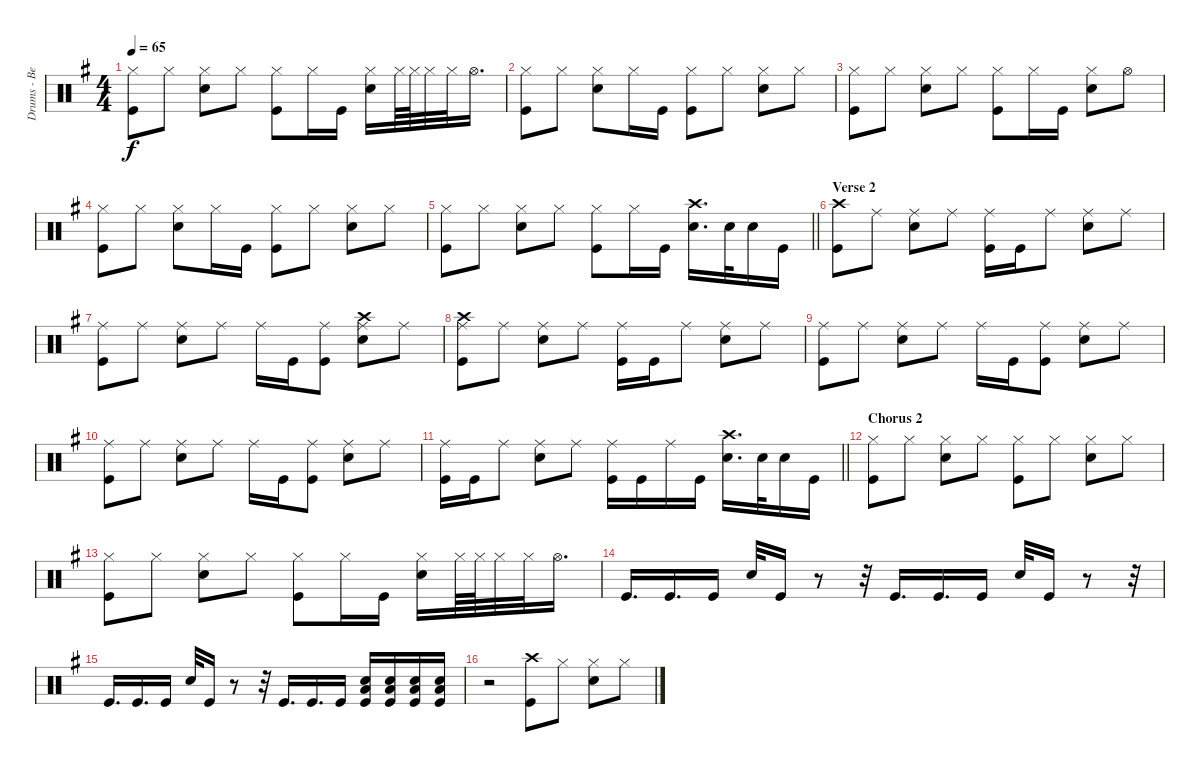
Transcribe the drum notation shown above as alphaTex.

\track ("Drums - Ben Johnston" "Drums - Be") {instrument percussion}
\staff {score}
\articulation defaults
\ts (4 4)
\tempo 65
\clef neutral
\ks g
("Hi-Hat (closed)" "Kick (hit)").8{dy f} "Hi-Hat (closed)".8 ("Hi-Hat (closed)" "Snare (hit) 2").8 "Hi-Hat (closed)".8 ("Hi-Hat (closed)" "Kick (hit)").8 "Hi-Hat (closed)".16 "Kick (hit)".16 ("Hi-Hat (closed)" "Snare (hit) 2").16 "Hi-Hat (closed)".64 "Hi-Hat (closed)".64 "Hi-Hat (closed)".32 "Hi-Hat (closed)".32 "Hi-Hat (open)".16{d} |
("Hi-Hat (closed)" "Kick (hit)").8 "Hi-Hat (closed)".8 ("Hi-Hat (closed)" "Snare (hit) 2").8 "Hi-Hat (closed)".16 "Kick (hit)".16 ("Hi-Hat (closed)" "Kick (hit)").8 "Hi-Hat (closed)".8 ("Hi-Hat (closed)" "Snare (hit) 2").8 "Hi-Hat (closed)".8 |
("Hi-Hat (closed)" "Kick (hit)").8 "Hi-Hat (closed)".8 ("Hi-Hat (closed)" "Snare (hit) 2").8 "Hi-Hat (closed)".8 ("Hi-Hat (closed)" "Kick (hit)").8 "Hi-Hat (closed)".16 "Kick (hit)".16 ("Hi-Hat (closed)" "Snare (hit) 2").8 "Hi-Hat (open)".8 |
("Hi-Hat (closed)" "Kick (hit)").8 "Hi-Hat (closed)".8 ("Hi-Hat (closed)" "Snare (hit) 2").8 "Hi-Hat (closed)".16 "Kick (hit)".16 ("Hi-Hat (closed)" "Kick (hit)").8 "Hi-Hat (closed)".8 ("Hi-Hat (closed)" "Snare (hit) 2").8 "Hi-Hat (closed)".8 |
\barLineRight lightlight
("Hi-Hat (closed)" "Kick (hit)").8 "Hi-Hat (closed)".8 ("Hi-Hat (closed)" "Snare (hit) 2").8 "Hi-Hat (closed)".8 ("Hi-Hat (closed)" "Kick (hit)").8 "Hi-Hat (closed)".16 "Kick (hit)".16 ("Crash high (hit)" "Snare (hit) 2").16{d} "Snare (hit) 2".32 "Snare (hit) 2".16 "Kick (hit)".16 |
\section ("" "Verse 2")
("Crash high (hit)" "Kick (hit)").8 "Ride (middle)".8 ("Ride (middle)" "Snare (hit) 2").8 "Ride (middle)".8 ("Ride (middle)" "Kick (hit)").16 "Kick (hit)".16 "Ride (middle)".8 ("Ride (middle)" "Snare (hit) 2").8 "Ride (middle)".8 |
("Ride (middle)" "Kick (hit)").8 "Ride (middle)".8 ("Ride (middle)" "Snare (hit) 2").8 "Ride (middle)".8 "Ride (middle)".16 "Kick (hit)".16 ("Ride (middle)" "Kick (hit)").8 ("Crash high (hit)" "Ride (middle)" "Snare (hit) 2").8 "Ride (middle)".8 |
("Crash high (hit)" "Ride (middle)" "Kick (hit)").8 "Ride (middle)".8 ("Ride (middle)" "Snare (hit) 2").8 "Ride (middle)".8 ("Ride (middle)" "Kick (hit)").16 "Kick (hit)".16 "Ride (middle)".8 ("Ride (middle)" "Snare (hit) 2").8 "Ride (middle)".8 |
("Ride (middle)" "Kick (hit)").8 "Ride (middle)".8 ("Ride (middle)" "Snare (hit) 2").8 "Ride (middle)".8 "Ride (middle)".16 "Kick (hit)".16 ("Ride (middle)" "Kick (hit)").8 ("Ride (middle)" "Snare (hit) 2").8 "Ride (middle)".8 |
("Ride (middle)" "Kick (hit)").8 "Ride (middle)".8 ("Ride (middle)" "Snare (hit) 2").8 "Ride (middle)".8 "Ride (middle)".16 "Kick (hit)".16 ("Ride (middle)" "Kick (hit)").8 ("Ride (middle)" "Snare (hit) 2").8 "Ride (middle)".8 |
\barLineRight lightlight
("Ride (middle)" "Kick (hit)").16 "Kick (hit)".16 "Ride (middle)".8 ("Ride (middle)" "Snare (hit) 2").8 "Ride (middle)".8 ("Ride (middle)" "Kick (hit)").16 "Kick (hit)".16 "Ride (middle)".16 "Kick (hit)".16 ("Crash high (hit)" "Snare (hit) 2").16{d} "Snare (hit) 2".32 "Snare (hit) 2".16 "Kick (hit)".16 |
\section ("" "Chorus 2")
("Hi-Hat (closed)" "Kick (hit)").8 "Hi-Hat (closed)".8 ("Hi-Hat (closed)" "Snare (hit) 2").8 "Hi-Hat (closed)".8 ("Hi-Hat (closed)" "Kick (hit)").8 "Hi-Hat (closed)".8 ("Hi-Hat (closed)" "Snare (hit) 2").8 "Hi-Hat (closed)".8 |
("Hi-Hat (closed)" "Kick (hit)").8 "Hi-Hat (closed)".8 ("Hi-Hat (closed)" "Snare (hit) 2").8 "Hi-Hat (closed)".8 ("Hi-Hat (closed)" "Kick (hit)").8 "Hi-Hat (closed)".16 "Kick (hit)".16 ("Hi-Hat (closed)" "Snare (hit) 2").16 "Hi-Hat (closed)".64 "Hi-Hat (closed)".64 "Hi-Hat (closed)".32 "Hi-Hat (closed)".32 "Hi-Hat (open)".16{d} |
"Kick (hit)".16{d} "Kick (hit)".16{d} "Kick (hit)".16 "Snare (hit) 2".32 "Kick (hit)".16 r.8 r.32 "Kick (hit)".16{d} "Kick (hit)".16{d} "Kick (hit)".16 "Snare (hit) 2".32 "Kick (hit)".16 r.8 r.32 |
"Kick (hit)".16{d} "Kick (hit)".16{d} "Kick (hit)".16 "Snare (hit) 2".32 "Kick (hit)".16 r.8 r.32 "Kick (hit)".16{d} "Kick (hit)".16{d} "Kick (hit)".16 ("Low Floor Tom (hit)" "Snare (hit) 2" "Kick (hit)").16 ("Low Floor Tom (hit)" "Snare (hit) 2" "Kick (hit)").16 ("Low Floor Tom (hit)" "Snare (hit) 2" "Kick (hit)").16 ("Low Floor Tom (hit)" "Snare (hit) 2" "Kick (hit)").16 |
r.2 ("Crash high (hit)" "Kick (hit)").8 "Hi-Hat (closed)".8 ("Hi-Hat (closed)" "Snare (hit) 2").8 "Hi-Hat (closed)".8
